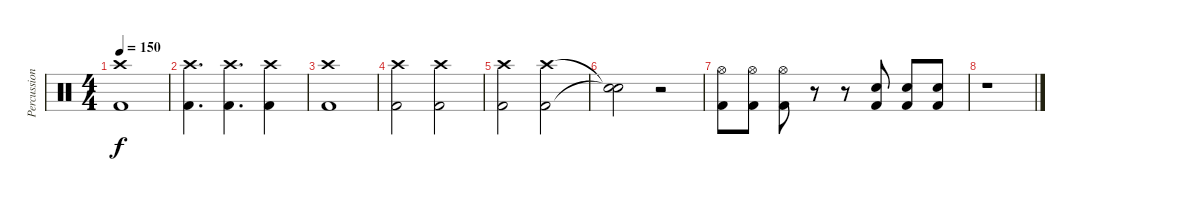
\track ("Percussion" "Percussion") {instrument percussion}
\staff {score}
\articulation defaults
\ts (4 4)
\tempo 150
\clef neutral
\ks c
("Crash high (hit)" "Kick (hit) 2").1{dy f} |
("Crash high (hit)" "Kick (hit) 2").4{d} ("Crash high (hit)" "Kick (hit) 2").4{d} ("Crash high (hit)" "Kick (hit) 2").4 |
("Crash high (hit)" "Kick (hit) 2").1 |
("Crash high (hit)" "Kick (hit) 2").2 ("Crash high (hit)" "Kick (hit) 2").2 |
("Crash high (hit)" "Kick (hit) 2").2 ("Crash high (hit)" "Kick (hit) 2").2 |
("Snare (hit)"{t} "Snare (hit)"{t}).2 r.2 |
("Hi-Hat (open)" "Kick (hit) 2").8 ("Hi-Hat (open)" "Kick (hit) 2").8 ("Hi-Hat (open)" "Kick (hit) 2").8 r.8 r.8 ("Snare (hit) 2" "Kick (hit) 2").8 ("Snare (hit) 2" "Kick (hit) 2").8 ("Snare (hit) 2" "Kick (hit) 2").8 |
r.1
